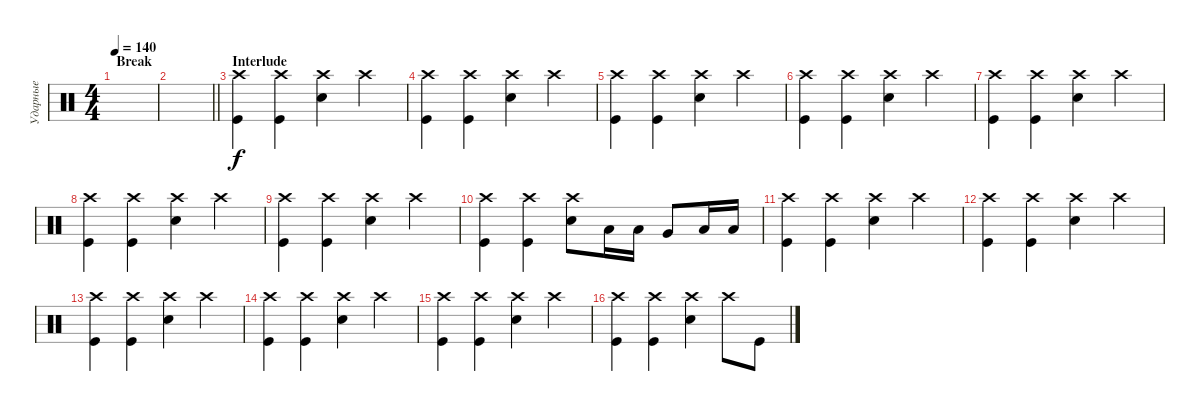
\track ("Ударные" "Ударные") {instrument percussion}
\staff {score}
\articulation defaults
\ts (4 4)
\section ("" "Break")
\tempo 140
\clef neutral
\ks c
|
\barLineRight lightlight
|
\section ("" "Interlude")
("Kick (hit)" "Crash high (hit)").4 ("Kick (hit)" "Crash high (hit)").4 ("Snare (hit) 2" "Crash high (hit)").4 "Crash high (hit)".4 |
("Kick (hit)" "Crash high (hit)").4 ("Kick (hit)" "Crash high (hit)").4 ("Snare (hit) 2" "Crash high (hit)").4 "Crash high (hit)".4 |
("Kick (hit)" "Crash high (hit)").4 ("Kick (hit)" "Crash high (hit)").4 ("Snare (hit) 2" "Crash high (hit)").4 "Crash high (hit)".4 |
("Kick (hit)" "Crash high (hit)").4 ("Kick (hit)" "Crash high (hit)").4 ("Snare (hit) 2" "Crash high (hit)").4 "Crash high (hit)".4 |
("Kick (hit)" "Crash high (hit)").4 ("Kick (hit)" "Crash high (hit)").4 ("Snare (hit) 2" "Crash high (hit)").4 "Crash high (hit)".4 |
("Kick (hit)" "Crash high (hit)").4 ("Kick (hit)" "Crash high (hit)").4 ("Snare (hit) 2" "Crash high (hit)").4 "Crash high (hit)".4 |
("Kick (hit)" "Crash high (hit)").4 ("Kick (hit)" "Crash high (hit)").4 ("Snare (hit) 2" "Crash high (hit)").4 "Crash high (hit)".4 |
("Kick (hit)" "Crash high (hit)").4 ("Kick (hit)" "Crash high (hit)").4 ("Snare (hit) 2" "Crash high (hit)").8 "Low Tom (hit)".16 "Low Tom (hit)".16 "Very Low Tom (hit)".8 "Low Floor Tom (hit)".16 "Low Floor Tom (hit)".16 |
("Kick (hit)" "Crash high (hit)").4 ("Kick (hit)" "Crash high (hit)").4 ("Snare (hit) 2" "Crash high (hit)").4 "Crash high (hit)".4 |
("Kick (hit)" "Crash high (hit)").4 ("Kick (hit)" "Crash high (hit)").4 ("Snare (hit) 2" "Crash high (hit)").4 "Crash high (hit)".4 |
("Kick (hit)" "Crash high (hit)").4 ("Kick (hit)" "Crash high (hit)").4 ("Snare (hit) 2" "Crash high (hit)").4 "Crash high (hit)".4 |
("Kick (hit)" "Crash high (hit)").4 ("Kick (hit)" "Crash high (hit)").4 ("Snare (hit) 2" "Crash high (hit)").4 "Crash high (hit)".4 |
("Kick (hit)" "Crash high (hit)").4 ("Kick (hit)" "Crash high (hit)").4 ("Snare (hit) 2" "Crash high (hit)").4 "Crash high (hit)".4 |
("Kick (hit)" "Crash high (hit)").4 ("Kick (hit)" "Crash high (hit)").4 ("Snare (hit) 2" "Crash high (hit)").4 "Crash high (hit)".8 "Kick (hit)".8{dy f}
